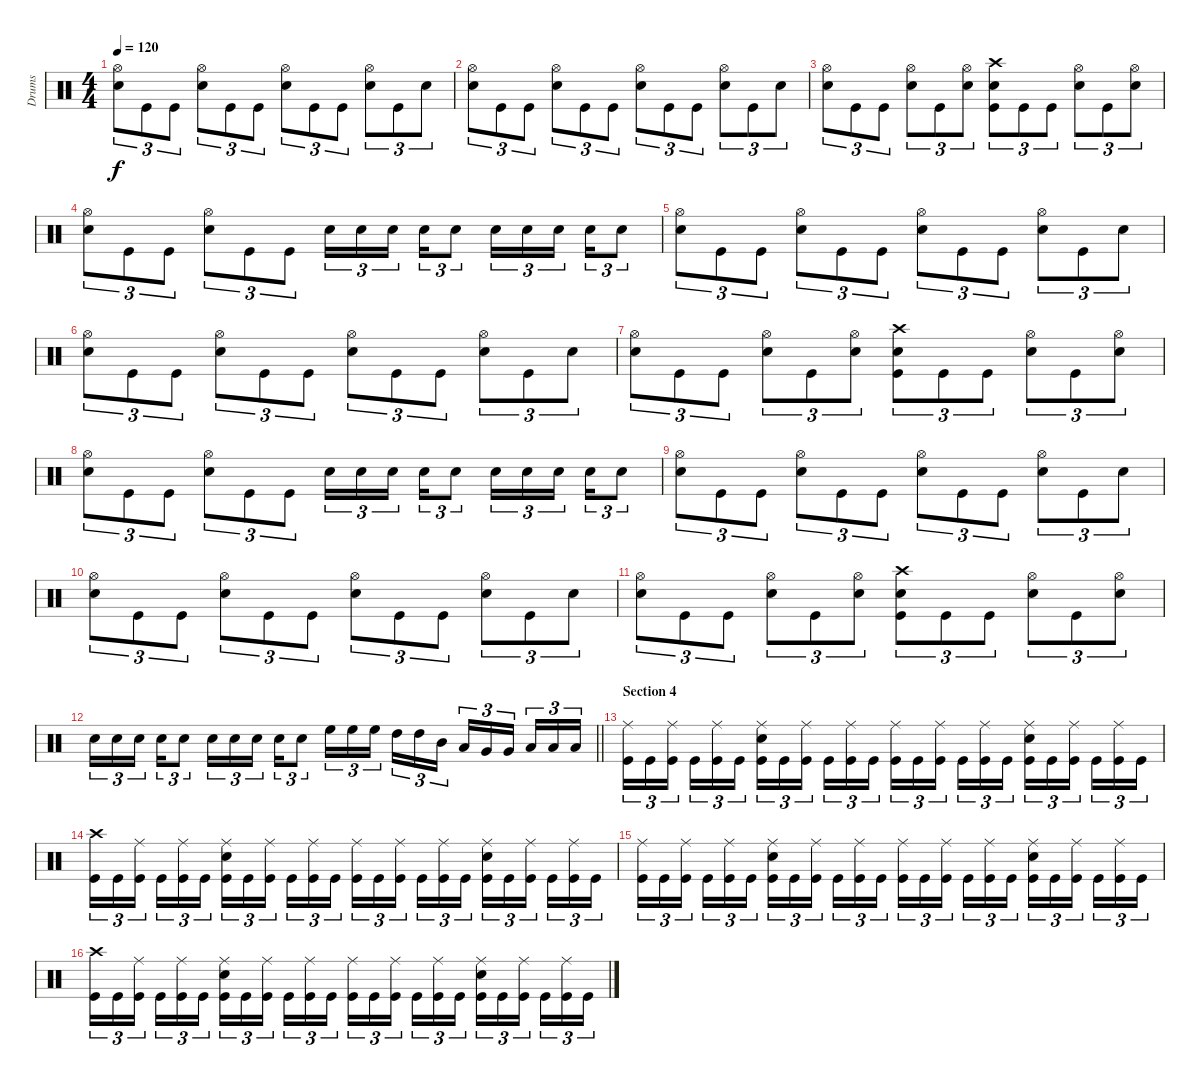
\track ("Drums" "Drums") {instrument percussion}
\staff {score}
\articulation defaults
\ts (4 4)
\tempo 120
\clef neutral
\ks c
("Hi-Hat (open)" "Snare (hit) 2").8{tu (3 2) dy f} "Kick (hit)".8{tu (3 2)} "Kick (hit)".8{tu (3 2)} ("Hi-Hat (open)" "Snare (hit) 2").8{tu (3 2)} "Kick (hit)".8{tu (3 2)} "Kick (hit)".8{tu (3 2)} ("Hi-Hat (open)" "Snare (hit) 2").8{tu (3 2)} "Kick (hit)".8{tu (3 2)} "Kick (hit)".8{tu (3 2)} ("Hi-Hat (open)" "Snare (hit) 2").8{tu (3 2)} "Kick (hit)".8{tu (3 2)} "Snare (hit) 2".8{tu (3 2)} |
("Hi-Hat (open)" "Snare (hit) 2").8{tu (3 2)} "Kick (hit)".8{tu (3 2)} "Kick (hit)".8{tu (3 2)} ("Hi-Hat (open)" "Snare (hit) 2").8{tu (3 2)} "Kick (hit)".8{tu (3 2)} "Kick (hit)".8{tu (3 2)} ("Hi-Hat (open)" "Snare (hit) 2").8{tu (3 2)} "Kick (hit)".8{tu (3 2)} "Kick (hit)".8{tu (3 2)} ("Hi-Hat (open)" "Snare (hit) 2").8{tu (3 2)} "Kick (hit)".8{tu (3 2)} "Snare (hit) 2".8{tu (3 2)} |
("Hi-Hat (open)" "Snare (hit) 2").8{tu (3 2)} "Kick (hit)".8{tu (3 2)} "Kick (hit)".8{tu (3 2)} ("Hi-Hat (open)" "Snare (hit) 2").8{tu (3 2)} "Kick (hit)".8{tu (3 2)} ("Hi-Hat (open)" "Snare (hit) 2").8{tu (3 2)} ("Crash high (hit)" "Snare (hit) 2" "Kick (hit)").8{tu (3 2)} "Kick (hit)".8{tu (3 2)} "Kick (hit)".8{tu (3 2)} ("Hi-Hat (open)" "Snare (hit) 2").8{tu (3 2)} "Kick (hit)".8{tu (3 2)} ("Hi-Hat (open)" "Snare (hit) 2").8{tu (3 2)} |
("Hi-Hat (open)" "Snare (hit) 2").8{tu (3 2)} "Kick (hit)".8{tu (3 2)} "Kick (hit)".8{tu (3 2)} ("Hi-Hat (open)" "Snare (hit) 2").8{tu (3 2)} "Kick (hit)".8{tu (3 2)} "Kick (hit)".8{tu (3 2)} "Snare (hit) 2".16{tu (3 2)} "Snare (hit) 2".16{tu (3 2)} "Snare (hit) 2".16{tu (3 2) beam splitsecondary} "Snare (hit) 2".16{tu (3 2)} "Snare (hit) 2".8{tu (3 2)} "Snare (hit) 2".16{tu (3 2)} "Snare (hit) 2".16{tu (3 2)} "Snare (hit) 2".16{tu (3 2) beam splitsecondary} "Snare (hit) 2".16{tu (3 2)} "Snare (hit) 2".8{tu (3 2)} |
("Hi-Hat (open)" "Snare (hit) 2").8{tu (3 2)} "Kick (hit)".8{tu (3 2)} "Kick (hit)".8{tu (3 2)} ("Hi-Hat (open)" "Snare (hit) 2").8{tu (3 2)} "Kick (hit)".8{tu (3 2)} "Kick (hit)".8{tu (3 2)} ("Hi-Hat (open)" "Snare (hit) 2").8{tu (3 2)} "Kick (hit)".8{tu (3 2)} "Kick (hit)".8{tu (3 2)} ("Hi-Hat (open)" "Snare (hit) 2").8{tu (3 2)} "Kick (hit)".8{tu (3 2)} "Snare (hit) 2".8{tu (3 2)} |
("Hi-Hat (open)" "Snare (hit) 2").8{tu (3 2)} "Kick (hit)".8{tu (3 2)} "Kick (hit)".8{tu (3 2)} ("Hi-Hat (open)" "Snare (hit) 2").8{tu (3 2)} "Kick (hit)".8{tu (3 2)} "Kick (hit)".8{tu (3 2)} ("Hi-Hat (open)" "Snare (hit) 2").8{tu (3 2)} "Kick (hit)".8{tu (3 2)} "Kick (hit)".8{tu (3 2)} ("Hi-Hat (open)" "Snare (hit) 2").8{tu (3 2)} "Kick (hit)".8{tu (3 2)} "Snare (hit) 2".8{tu (3 2)} |
("Hi-Hat (open)" "Snare (hit) 2").8{tu (3 2)} "Kick (hit)".8{tu (3 2)} "Kick (hit)".8{tu (3 2)} ("Hi-Hat (open)" "Snare (hit) 2").8{tu (3 2)} "Kick (hit)".8{tu (3 2)} ("Hi-Hat (open)" "Snare (hit) 2").8{tu (3 2)} ("Crash high (hit)" "Snare (hit) 2" "Kick (hit)").8{tu (3 2)} "Kick (hit)".8{tu (3 2)} "Kick (hit)".8{tu (3 2)} ("Hi-Hat (open)" "Snare (hit) 2").8{tu (3 2)} "Kick (hit)".8{tu (3 2)} ("Hi-Hat (open)" "Snare (hit) 2").8{tu (3 2)} |
("Hi-Hat (open)" "Snare (hit) 2").8{tu (3 2)} "Kick (hit)".8{tu (3 2)} "Kick (hit)".8{tu (3 2)} ("Hi-Hat (open)" "Snare (hit) 2").8{tu (3 2)} "Kick (hit)".8{tu (3 2)} "Kick (hit)".8{tu (3 2)} "Snare (hit) 2".16{tu (3 2)} "Snare (hit) 2".16{tu (3 2)} "Snare (hit) 2".16{tu (3 2) beam splitsecondary} "Snare (hit) 2".16{tu (3 2)} "Snare (hit) 2".8{tu (3 2)} "Snare (hit) 2".16{tu (3 2)} "Snare (hit) 2".16{tu (3 2)} "Snare (hit) 2".16{tu (3 2) beam splitsecondary} "Snare (hit) 2".16{tu (3 2)} "Snare (hit) 2".8{tu (3 2)} |
("Hi-Hat (open)" "Snare (hit) 2").8{tu (3 2)} "Kick (hit)".8{tu (3 2)} "Kick (hit)".8{tu (3 2)} ("Hi-Hat (open)" "Snare (hit) 2").8{tu (3 2)} "Kick (hit)".8{tu (3 2)} "Kick (hit)".8{tu (3 2)} ("Hi-Hat (open)" "Snare (hit) 2").8{tu (3 2)} "Kick (hit)".8{tu (3 2)} "Kick (hit)".8{tu (3 2)} ("Hi-Hat (open)" "Snare (hit) 2").8{tu (3 2)} "Kick (hit)".8{tu (3 2)} "Snare (hit) 2".8{tu (3 2)} |
("Hi-Hat (open)" "Snare (hit) 2").8{tu (3 2)} "Kick (hit)".8{tu (3 2)} "Kick (hit)".8{tu (3 2)} ("Hi-Hat (open)" "Snare (hit) 2").8{tu (3 2)} "Kick (hit)".8{tu (3 2)} "Kick (hit)".8{tu (3 2)} ("Hi-Hat (open)" "Snare (hit) 2").8{tu (3 2)} "Kick (hit)".8{tu (3 2)} "Kick (hit)".8{tu (3 2)} ("Hi-Hat (open)" "Snare (hit) 2").8{tu (3 2)} "Kick (hit)".8{tu (3 2)} "Snare (hit) 2".8{tu (3 2)} |
("Hi-Hat (open)" "Snare (hit) 2").8{tu (3 2)} "Kick (hit)".8{tu (3 2)} "Kick (hit)".8{tu (3 2)} ("Hi-Hat (open)" "Snare (hit) 2").8{tu (3 2)} "Kick (hit)".8{tu (3 2)} ("Hi-Hat (open)" "Snare (hit) 2").8{tu (3 2)} ("Crash high (hit)" "Snare (hit) 2" "Kick (hit)").8{tu (3 2)} "Kick (hit)".8{tu (3 2)} "Kick (hit)".8{tu (3 2)} ("Hi-Hat (open)" "Snare (hit) 2").8{tu (3 2)} "Kick (hit)".8{tu (3 2)} ("Hi-Hat (open)" "Snare (hit) 2").8{tu (3 2)} |
\barLineRight lightlight "Snare (hit) 2".16{tu (3 2)} "Snare (hit) 2".16{tu (3 2)} "Snare (hit) 2".16{tu (3 2) beam splitsecondary} "Snare (hit) 2".16{tu (3 2)} "Snare (hit) 2".8{tu (3 2)} "Snare (hit) 2".16{tu (3 2)} "Snare (hit) 2".16{tu (3 2)} "Snare (hit) 2".16{tu (3 2) beam splitsecondary} "Snare (hit) 2".16{tu (3 2)} "Snare (hit) 2".8{tu (3 2)} "High Floor Tom (hit)".16{tu (3 2)} "High Floor Tom (hit)".16{tu (3 2)} "High Floor Tom (hit)".16{tu (3 2) beam splitsecondary} "High Tom (hit)".16{tu (3 2)} "High Tom (hit)".16{tu (3 2)} "Mid Tom (hit)".16{tu (3 2)} "Low Tom (hit)".16{tu (3 2)} "Very Low Tom (hit)".16{tu (3 2)} "Very Low Tom (hit)".16{tu (3 2) beam splitsecondary} "Low Floor Tom (hit)".16{tu (3 2)} "Low Floor Tom (hit)".16{tu (3 2)} "Low Floor Tom (hit)".16{tu (3 2)}
|
\section ("" "Section 4")
("Ride (middle)" "Kick (hit)").16{tu (3 2)} "Kick (hit)".16{tu (3 2)} ("Ride (middle)" "Kick (hit)").16{tu (3 2) beam splitsecondary} "Kick (hit)".16{tu (3 2)} ("Ride (middle)" "Kick (hit)").16{tu (3 2)} "Kick (hit)".16{tu (3 2)} ("Ride (middle)" "Snare (hit) 2" "Kick (hit)").16{tu (3 2)} "Kick (hit)".16{tu (3 2)} ("Ride (middle)" "Kick (hit)").16{tu (3 2) beam splitsecondary} "Kick (hit)".16{tu (3 2)} ("Ride (middle)" "Kick (hit)").16{tu (3 2)} "Kick (hit)".16{tu (3 2)} ("Ride (middle)" "Kick (hit)").16{tu (3 2)} "Kick (hit)".16{tu (3 2)} ("Ride (middle)" "Kick (hit)").16{tu (3 2) beam splitsecondary} "Kick (hit)".16{tu (3 2)} ("Ride (middle)" "Kick (hit)").16{tu (3 2)} "Kick (hit)".16{tu (3 2)} ("Ride (middle)" "Snare (hit) 2" "Kick (hit)").16{tu (3 2)} "Kick (hit)".16{tu (3 2)} ("Ride (middle)" "Kick (hit)").16{tu (3 2) beam splitsecondary} "Kick (hit)".16{tu (3 2)} ("Ride (middle)" "Kick (hit)").16{tu (3 2)} "Kick (hit)".16{tu (3 2)} |
("Crash high (hit)" "Kick (hit)").16{tu (3 2)} "Kick (hit)".16{tu (3 2)} ("Ride (middle)" "Kick (hit)").16{tu (3 2) beam splitsecondary} "Kick (hit)".16{tu (3 2)} ("Ride (middle)" "Kick (hit)").16{tu (3 2)} "Kick (hit)".16{tu (3 2)} ("Ride (middle)" "Snare (hit) 2" "Kick (hit)").16{tu (3 2)} "Kick (hit)".16{tu (3 2)} ("Ride (middle)" "Kick (hit)").16{tu (3 2) beam splitsecondary} "Kick (hit)".16{tu (3 2)} ("Ride (middle)" "Kick (hit)").16{tu (3 2)} "Kick (hit)".16{tu (3 2)} ("Ride (middle)" "Kick (hit)").16{tu (3 2)} "Kick (hit)".16{tu (3 2)} ("Ride (middle)" "Kick (hit)").16{tu (3 2) beam splitsecondary} "Kick (hit)".16{tu (3 2)} ("Ride (middle)" "Kick (hit)").16{tu (3 2)} "Kick (hit)".16{tu (3 2)} ("Ride (middle)" "Snare (hit) 2" "Kick (hit)").16{tu (3 2)} "Kick (hit)".16{tu (3 2)} ("Ride (middle)" "Kick (hit)").16{tu (3 2) beam splitsecondary} "Kick (hit)".16{tu (3 2)} ("Ride (middle)" "Kick (hit)").16{tu (3 2)} "Kick (hit)".16{tu (3 2)} |
("Ride (middle)" "Kick (hit)").16{tu (3 2)} "Kick (hit)".16{tu (3 2)} ("Ride (middle)" "Kick (hit)").16{tu (3 2) beam splitsecondary} "Kick (hit)".16{tu (3 2)} ("Ride (middle)" "Kick (hit)").16{tu (3 2)} "Kick (hit)".16{tu (3 2)} ("Ride (middle)" "Snare (hit) 2" "Kick (hit)").16{tu (3 2)} "Kick (hit)".16{tu (3 2)} ("Ride (middle)" "Kick (hit)").16{tu (3 2) beam splitsecondary} "Kick (hit)".16{tu (3 2)} ("Ride (middle)" "Kick (hit)").16{tu (3 2)} "Kick (hit)".16{tu (3 2)} ("Ride (middle)" "Kick (hit)").16{tu (3 2)} "Kick (hit)".16{tu (3 2)} ("Ride (middle)" "Kick (hit)").16{tu (3 2) beam splitsecondary} "Kick (hit)".16{tu (3 2)} ("Ride (middle)" "Kick (hit)").16{tu (3 2)} "Kick (hit)".16{tu (3 2)} ("Ride (middle)" "Snare (hit) 2" "Kick (hit)").16{tu (3 2)} "Kick (hit)".16{tu (3 2)} ("Ride (middle)" "Kick (hit)").16{tu (3 2) beam splitsecondary} "Kick (hit)".16{tu (3 2)} ("Ride (middle)" "Kick (hit)").16{tu (3 2)} "Kick (hit)".16{tu (3 2)} |
("Crash high (hit)" "Kick (hit)").16{tu (3 2)} "Kick (hit)".16{tu (3 2)} ("Ride (middle)" "Kick (hit)").16{tu (3 2) beam splitsecondary} "Kick (hit)".16{tu (3 2)} ("Ride (middle)" "Kick (hit)").16{tu (3 2)} "Kick (hit)".16{tu (3 2)} ("Ride (middle)" "Snare (hit) 2" "Kick (hit)").16{tu (3 2)} "Kick (hit)".16{tu (3 2)} ("Ride (middle)" "Kick (hit)").16{tu (3 2) beam splitsecondary} "Kick (hit)".16{tu (3 2)} ("Ride (middle)" "Kick (hit)").16{tu (3 2)} "Kick (hit)".16{tu (3 2)} ("Ride (middle)" "Kick (hit)").16{tu (3 2)} "Kick (hit)".16{tu (3 2)} ("Ride (middle)" "Kick (hit)").16{tu (3 2) beam splitsecondary} "Kick (hit)".16{tu (3 2)} ("Ride (middle)" "Kick (hit)").16{tu (3 2)} "Kick (hit)".16{tu (3 2)} ("Ride (middle)" "Snare (hit) 2" "Kick (hit)").16{tu (3 2)} "Kick (hit)".16{tu (3 2)} ("Ride (middle)" "Kick (hit)").16{tu (3 2) beam splitsecondary} "Kick (hit)".16{tu (3 2)} ("Ride (middle)" "Kick (hit)").16{tu (3 2)} "Kick (hit)".16{tu (3 2)}
